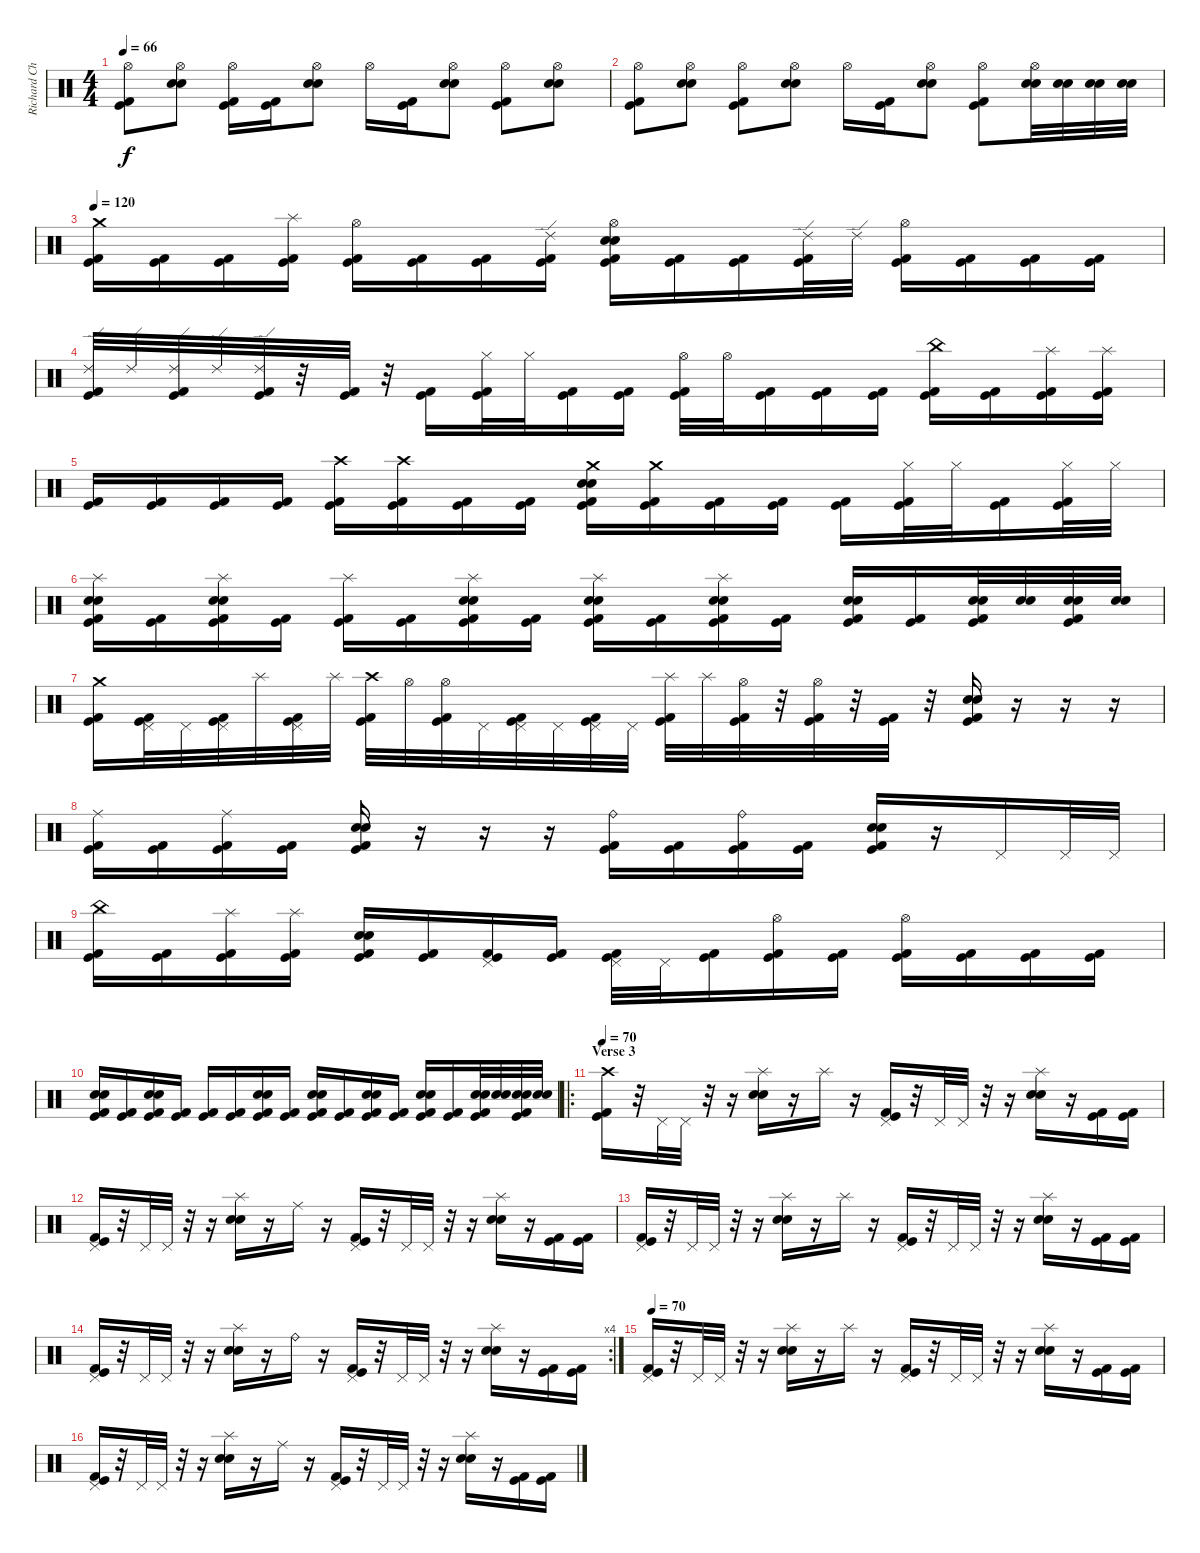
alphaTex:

\track ("Richard Christy" "Richard Ch") {instrument percussion}
\staff {score}
\articulation defaults
\ts (4 4)
\tempo 66
\clef neutral
\ks c
("Hi-Hat (open)" "Kick (hit) 2" "Kick (hit)").8{dy f} ("Hi-Hat (open)" "Snare (hit) 2" "Electric Snare (hit)").8 ("Hi-Hat (open)" "Kick (hit) 2" "Kick (hit)").16 ("Kick (hit) 2" "Kick (hit)").16 ("Hi-Hat (open)" "Snare (hit) 2" "Electric Snare (hit)").8 "Hi-Hat (open)".16 ("Kick (hit)" "Kick (hit) 2").16 ("Hi-Hat (open)" "Snare (hit) 2" "Electric Snare (hit)").8 ("Hi-Hat (open)" "Kick (hit)" "Kick (hit) 2").8 ("Hi-Hat (open)" "Snare (hit) 2" "Electric Snare (hit)").8 |
("Hi-Hat (open)" "Kick (hit) 2" "Kick (hit)").8 ("Hi-Hat (open)" "Snare (hit) 2" "Electric Snare (hit)").8 ("Hi-Hat (open)" "Kick (hit)" "Kick (hit) 2").8 ("Hi-Hat (open)" "Snare (hit) 2" "Electric Snare (hit)").8 "Hi-Hat (open)".16 ("Kick (hit) 2" "Kick (hit)").16 ("Hi-Hat (open)" "Snare (hit) 2" "Electric Snare (hit)").8 ("Hi-Hat (open)" "Kick (hit)" "Kick (hit) 2").8 ("Hi-Hat (open)" "Snare (hit) 2" "Electric Snare (hit)").32 ("Snare (hit) 2" "Electric Snare (hit)").32 ("Snare (hit) 2" "Electric Snare (hit)").32 ("Snare (hit) 2" "Electric Snare (hit)").32 |
\tempo 120
("Crash medium (hit)" "Kick (hit) 2" "Kick (hit)").16 ("Kick (hit)" "Kick (hit) 2").16 ("Kick (hit)" "Kick (hit) 2").16 ("Splash (hit)" "Kick (hit)" "Kick (hit) 2").16 ("Hi-Hat (open)" "Kick (hit)" "Kick (hit) 2").16 ("Kick (hit)" "Kick (hit) 2").16 ("Kick (hit)" "Kick (hit) 2").16 ("Ride (edge) 2" "Kick (hit)" "Kick (hit) 2").16 ("Hi-Hat (open)" "Snare (hit) 2" "Electric Snare (hit)" "Kick (hit)" "Kick (hit) 2").16 ("Kick (hit)" "Kick (hit) 2").16 ("Kick (hit)" "Kick (hit) 2").16 ("Ride (edge) 2" "Kick (hit)" "Kick (hit) 2").32 "Ride (edge) 2".32 ("Hi-Hat (open)" "Kick (hit)" "Kick (hit) 2").16 ("Kick (hit)" "Kick (hit) 2").16 ("Kick (hit)" "Kick (hit) 2").16 ("Kick (hit)" "Kick (hit) 2").16 |
("Ride (edge) 2" "Kick (hit)" "Kick (hit) 2").32 "Ride (edge) 2".32 ("Ride (edge) 2" "Kick (hit)" "Kick (hit) 2").32 "Ride (edge) 2".32 ("Ride (edge) 2" "Kick (hit)" "Kick (hit) 2").32 r.32 ("Kick (hit)" "Kick (hit) 2").32 r.32 ("Kick (hit)" "Kick (hit) 2").16 ("Hi-Hat (closed)" "Kick (hit)" "Kick (hit) 2").32 "Hi-Hat (closed)".32 ("Kick (hit)" "Kick (hit) 2").16 ("Kick (hit)" "Kick (hit) 2").16 ("Hi-Hat (open)" "Kick (hit)" "Kick (hit) 2").32 "Hi-Hat (open)".32 ("Kick (hit)" "Kick (hit) 2").16 ("Kick (hit)" "Kick (hit) 2").16 ("Kick (hit)" "Kick (hit) 2").16 ("China (hit)" "Kick (hit)" "Kick (hit) 2").16 ("Kick (hit)" "Kick (hit) 2").16 ("Splash (hit)" "Kick (hit)" "Kick (hit) 2").16 ("Splash (hit)" "Kick (hit)" "Kick (hit) 2").16 |
("Kick (hit)" "Kick (hit) 2").16 ("Kick (hit)" "Kick (hit) 2").16 ("Kick (hit)" "Kick (hit) 2").16 ("Kick (hit)" "Kick (hit) 2").16 ("Crash high (hit)" "Kick (hit)" "Kick (hit) 2").16 ("Crash high (hit)" "Kick (hit)" "Kick (hit) 2").16 ("Kick (hit)" "Kick (hit) 2").16 ("Kick (hit)" "Kick (hit) 2").16 ("Crash medium (hit)" "Snare (hit) 2" "Electric Snare (hit)" "Kick (hit)" "Kick (hit) 2").16 ("Crash medium (hit)" "Kick (hit)" "Kick (hit) 2").16 ("Kick (hit)" "Kick (hit) 2").16 ("Kick (hit)" "Kick (hit) 2").16 ("Kick (hit)" "Kick (hit) 2").16 ("Hi-Hat (closed)" "Kick (hit)" "Kick (hit) 2").32 "Hi-Hat (closed)".32 ("Kick (hit)" "Kick (hit) 2").16 ("Hi-Hat (closed)" "Kick (hit)" "Kick (hit) 2").32 "Hi-Hat (closed)".32 |
("Snare (hit) 2" "Electric Snare (hit)" "Splash (hit)" "Kick (hit)" "Kick (hit) 2").16 ("Kick (hit)" "Kick (hit) 2").16 ("Electric Snare (hit)" "Snare (hit) 2" "Splash (hit)" "Kick (hit)" "Kick (hit) 2").16 ("Kick (hit)" "Kick (hit) 2").16 ("Splash (hit)" "Kick (hit)" "Kick (hit) 2").16 ("Kick (hit)" "Kick (hit) 2").16 ("Electric Snare (hit)" "Snare (hit) 2" "Splash (hit)" "Kick (hit)" "Kick (hit) 2").16 ("Kick (hit)" "Kick (hit) 2").16 ("Splash (hit)" "Electric Snare (hit)" "Snare (hit) 2" "Kick (hit)" "Kick (hit) 2").16 ("Kick (hit)" "Kick (hit) 2").16 ("Splash (hit)" "Snare (hit) 2" "Electric Snare (hit)" "Kick (hit)" "Kick (hit) 2").16 ("Kick (hit)" "Kick (hit) 2").16 ("Snare (hit) 2" "Electric Snare (hit)" "Kick (hit)" "Kick (hit) 2").16 ("Kick (hit)" "Kick (hit) 2").16 ("Snare (hit) 2" "Electric Snare (hit)" "Kick (hit)" "Kick (hit) 2").32 ("Snare (hit) 2" "Electric Snare (hit)").32 ("Snare (hit) 2" "Electric Snare (hit)" "Kick (hit)" "Kick (hit) 2").32 ("Snare (hit) 2" "Electric Snare (hit)").32 |
("Crash medium (hit)" "Kick (hit)" "Kick (hit) 2").16 ("Pedal Hi-Hat (hit)" "Kick (hit)" "Kick (hit) 2").32 "Pedal Hi-Hat (hit)".32 ("Pedal Hi-Hat (hit)" "Kick (hit)" "Kick (hit) 2").32 "Splash (hit)".32 ("Pedal Hi-Hat (hit)" "Kick (hit)" "Kick (hit) 2").32 "Splash (hit)".32 ("Crash high (hit)" "Kick (hit)" "Kick (hit) 2").32 "Hi-Hat (open)".32 ("Hi-Hat (open)" "Kick (hit)" "Kick (hit) 2").32 "Pedal Hi-Hat (hit)".32 ("Pedal Hi-Hat (hit)" "Kick (hit)" "Kick (hit) 2").32 "Pedal Hi-Hat (hit)".32 ("Pedal Hi-Hat (hit)" "Kick (hit)" "Kick (hit) 2").32 "Pedal Hi-Hat (hit)".32 ("Splash (hit)" "Kick (hit)" "Kick (hit) 2").32 "Splash (hit)".32 ("Hi-Hat (open)" "Kick (hit)" "Kick (hit) 2").32 r.32 ("Hi-Hat (open)" "Kick (hit)" "Kick (hit) 2").32 r.32 ("Kick (hit)" "Kick (hit) 2").32 r.32 ("Electric Snare (hit)" "Snare (hit) 2" "Kick (hit)" "Kick (hit) 2").16 r.16 r.16 r.16 |
("Ride (middle)" "Kick (hit)" "Kick (hit) 2").16 ("Kick (hit)" "Kick (hit) 2").16 ("Ride (middle)" "Kick (hit)" "Kick (hit) 2").16 ("Kick (hit)" "Kick (hit) 2").16 ("Electric Snare (hit)" "Snare (hit) 2" "Kick (hit)" "Kick (hit) 2").16 r.16 r.16 r.16 ("Ride (bell)" "Kick (hit)" "Kick (hit) 2").16 ("Kick (hit)" "Kick (hit) 2").16 ("Ride (bell)" "Kick (hit)" "Kick (hit) 2").16 ("Kick (hit)" "Kick (hit) 2").16 ("Electric Snare (hit)" "Snare (hit) 2" "Kick (hit)" "Kick (hit) 2").16 r.16 "Pedal Hi-Hat (hit)".16 "Pedal Hi-Hat (hit)".32 "Pedal Hi-Hat (hit)".32 |
("China (hit)" "Kick (hit)" "Kick (hit) 2").16 ("Kick (hit)" "Kick (hit) 2").16 ("Splash (hit)" "Kick (hit)" "Kick (hit) 2").16 ("Splash (hit)" "Kick (hit)" "Kick (hit) 2").16 ("Snare (hit) 2" "Electric Snare (hit)" "Kick (hit)" "Kick (hit) 2").16 ("Kick (hit)" "Kick (hit) 2").16 ("Pedal Hi-Hat (hit)" "Kick (hit)" "Kick (hit) 2").16 ("Kick (hit)" "Kick (hit) 2").16 ("Pedal Hi-Hat (hit)" "Kick (hit)" "Kick (hit) 2").32 "Pedal Hi-Hat (hit)".32 ("Kick (hit)" "Kick (hit) 2").16 ("Hi-Hat (open)" "Kick (hit)" "Kick (hit) 2").16 ("Kick (hit)" "Kick (hit) 2").16 ("Hi-Hat (open)" "Kick (hit)" "Kick (hit) 2").16 ("Kick (hit)" "Kick (hit) 2").16 ("Kick (hit)" "Kick (hit) 2").16 ("Kick (hit)" "Kick (hit) 2").16 |
("Snare (hit) 2" "Electric Snare (hit)" "Kick (hit)" "Kick (hit) 2").16 ("Kick (hit)" "Kick (hit) 2").16 ("Electric Snare (hit)" "Snare (hit) 2" "Kick (hit)" "Kick (hit) 2").16 ("Kick (hit)" "Kick (hit) 2").16 ("Kick (hit)" "Kick (hit) 2").16 ("Kick (hit)" "Kick (hit) 2").16 ("Electric Snare (hit)" "Snare (hit) 2" "Kick (hit)" "Kick (hit) 2").16 ("Kick (hit)" "Kick (hit) 2").16 ("Electric Snare (hit)" "Snare (hit) 2" "Kick (hit)" "Kick (hit) 2").16 ("Kick (hit)" "Kick (hit) 2").16 ("Snare (hit) 2" "Electric Snare (hit)" "Kick (hit)" "Kick (hit) 2").16 ("Kick (hit)" "Kick (hit) 2").16 ("Snare (hit) 2" "Electric Snare (hit)" "Kick (hit)" "Kick (hit) 2").16 ("Kick (hit)" "Kick (hit) 2").16 ("Snare (hit) 2" "Electric Snare (hit)" "Kick (hit)" "Kick (hit) 2").32 ("Snare (hit) 2" "Electric Snare (hit)").32 ("Snare (hit) 2" "Electric Snare (hit)" "Kick (hit)" "Kick (hit) 2").32 ("Snare (hit) 2" "Electric Snare (hit)").32 |
\ro
\section ("" "Verse 3")
\tempo 70
("Crash high (hit)" "Kick (hit) 2" "Kick (hit)").16 r.32 "Pedal Hi-Hat (hit)".32 "Pedal Hi-Hat (hit)".32 r.32 r.16 ("Splash (hit)" "Snare (hit) 2" "Electric Snare (hit)").16 r.16 "Splash (hit)".16 r.16 ("Pedal Hi-Hat (hit)" "Kick (hit)" "Kick (hit) 2").16 r.32 "Pedal Hi-Hat (hit)".32 "Pedal Hi-Hat (hit)".32 r.32 r.16 ("Splash (hit)" "Snare (hit) 2" "Electric Snare (hit)").16 r.16 ("Kick (hit)" "Kick (hit) 2").16 ("Kick (hit)" "Kick (hit) 2").16 |
("Pedal Hi-Hat (hit)" "Kick (hit) 2" "Kick (hit)").16 r.32 "Pedal Hi-Hat (hit)".32 "Pedal Hi-Hat (hit)".32 r.32 r.16 ("Splash (hit)" "Snare (hit) 2" "Electric Snare (hit)").16 r.16 "Ride (middle)".16 r.16 ("Pedal Hi-Hat (hit)" "Kick (hit)" "Kick (hit) 2").16 r.32 "Pedal Hi-Hat (hit)".32 "Pedal Hi-Hat (hit)".32 r.32 r.16 ("Splash (hit)" "Snare (hit) 2" "Electric Snare (hit)").16 r.16 ("Kick (hit)" "Kick (hit) 2").16 ("Kick (hit)" "Kick (hit) 2").16 |
("Pedal Hi-Hat (hit)" "Kick (hit) 2" "Kick (hit)").16 r.32 "Pedal Hi-Hat (hit)".32 "Pedal Hi-Hat (hit)".32 r.32 r.16 ("Splash (hit)" "Snare (hit) 2" "Electric Snare (hit)").16 r.16 "Splash (hit)".16 r.16 ("Pedal Hi-Hat (hit)" "Kick (hit)" "Kick (hit) 2").16 r.32 "Pedal Hi-Hat (hit)".32 "Pedal Hi-Hat (hit)".32 r.32 r.16 ("Splash (hit)" "Snare (hit) 2" "Electric Snare (hit)").16 r.16 ("Kick (hit)" "Kick (hit) 2").16 ("Kick (hit)" "Kick (hit) 2").16 |
\rc 4
("Pedal Hi-Hat (hit)" "Kick (hit) 2" "Kick (hit)").16 r.32 "Pedal Hi-Hat (hit)".32 "Pedal Hi-Hat (hit)".32 r.32 r.16 ("Splash (hit)" "Snare (hit) 2" "Electric Snare (hit)").16 r.16 "Ride (bell)".16 r.16 ("Pedal Hi-Hat (hit)" "Kick (hit)" "Kick (hit) 2").16 r.32 "Pedal Hi-Hat (hit)".32 "Pedal Hi-Hat (hit)".32 r.32 r.16 ("Splash (hit)" "Snare (hit) 2" "Electric Snare (hit)").16 r.16 ("Kick (hit)" "Kick (hit) 2").16 ("Kick (hit)" "Kick (hit) 2").16 |
\tempo 70
("Pedal Hi-Hat (hit)" "Kick (hit) 2" "Kick (hit)").16 r.32 "Pedal Hi-Hat (hit)".32 "Pedal Hi-Hat (hit)".32 r.32 r.16 ("Splash (hit)" "Snare (hit) 2" "Electric Snare (hit)").16 r.16 "Splash (hit)".16 r.16 ("Pedal Hi-Hat (hit)" "Kick (hit)" "Kick (hit) 2").16 r.32 "Pedal Hi-Hat (hit)".32 "Pedal Hi-Hat (hit)".32 r.32 r.16 ("Splash (hit)" "Snare (hit) 2" "Electric Snare (hit)").16 r.16 ("Kick (hit)" "Kick (hit) 2").16 ("Kick (hit)" "Kick (hit) 2").16 |
("Pedal Hi-Hat (hit)" "Kick (hit) 2" "Kick (hit)").16 r.32 "Pedal Hi-Hat (hit)".32 "Pedal Hi-Hat (hit)".32 r.32 r.16 ("Splash (hit)" "Snare (hit) 2" "Electric Snare (hit)").16 r.16 "Ride (middle)".16 r.16 ("Pedal Hi-Hat (hit)" "Kick (hit)" "Kick (hit) 2").16 r.32 "Pedal Hi-Hat (hit)".32 "Pedal Hi-Hat (hit)".32 r.32 r.16 ("Splash (hit)" "Snare (hit) 2" "Electric Snare (hit)").16 r.16 ("Kick (hit)" "Kick (hit) 2").16 ("Kick (hit)" "Kick (hit) 2").16
